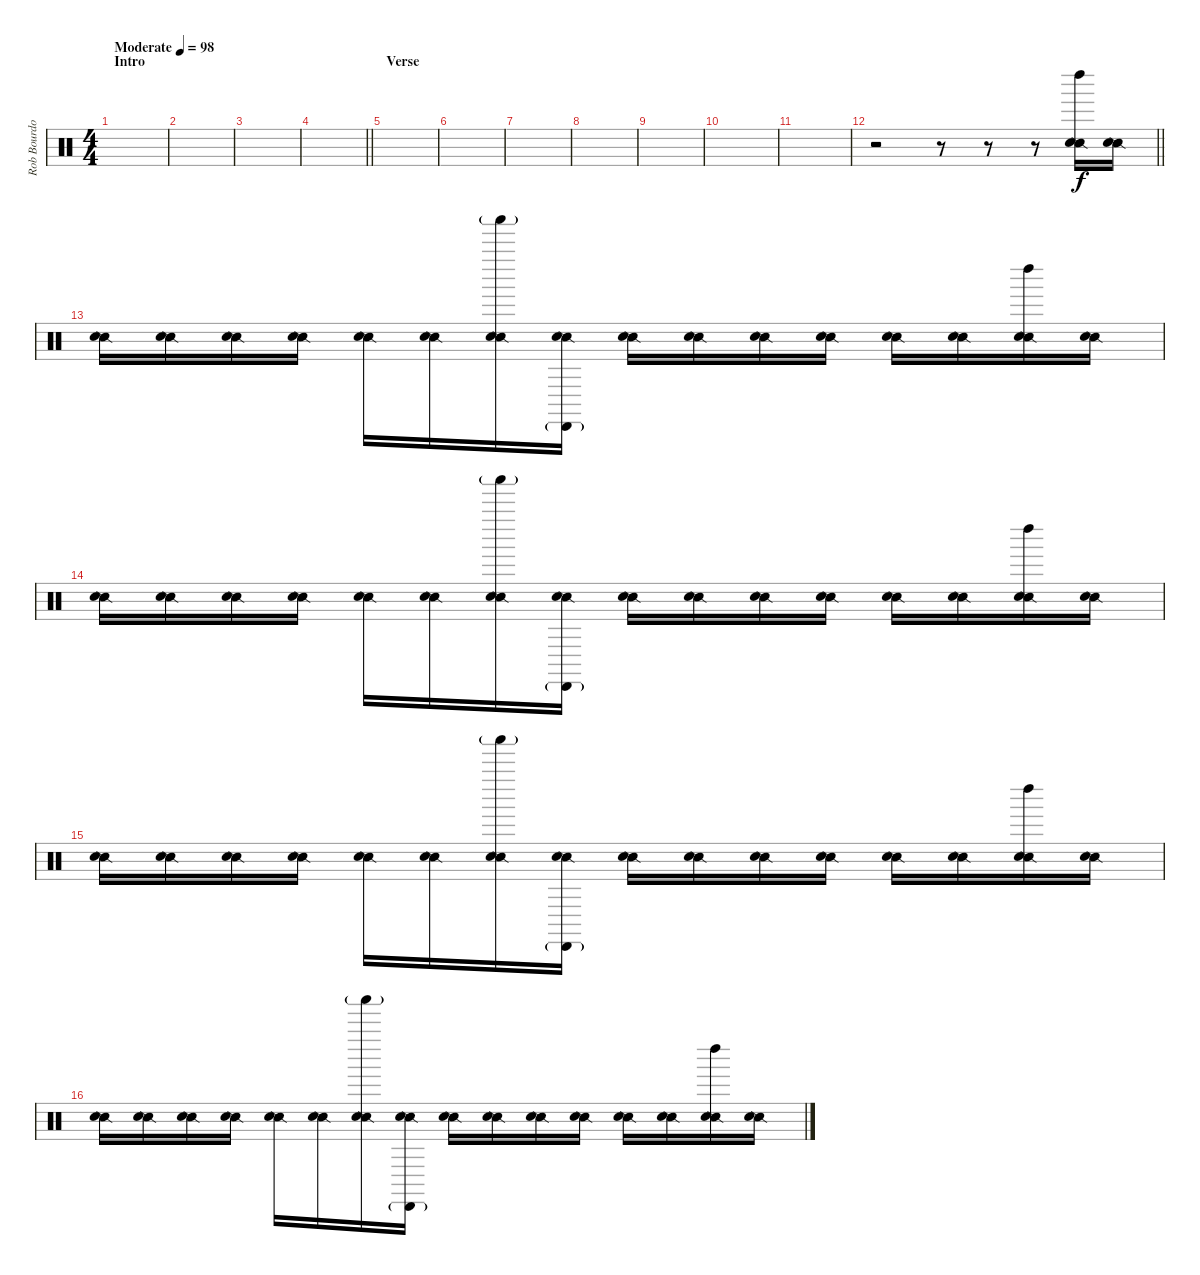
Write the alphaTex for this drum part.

\track ("Rob Bourdon (Drums)" "Rob Bourdo") {instrument percussion}
\staff {score}
\articulation defaults
\ts (4 4)
\section ("" "Intro")
\tempo (98 "Moderate")
\clef neutral
\ks c
|
|
|
\barLineRight lightlight
|
\section ("" "Verse")
|
|
|
|
|
|
|
\barLineRight lightlight
r.2{volume 8} r.8 r.8 r.8 ("Left Maraca (hit)" "Snare (side stick) 2" "Hand Clap (hit)").16 ("Snare (side stick) 2" "Hand Clap (hit)").16 |
("Snare (side stick) 2" "Hand Clap (hit)").16 ("Snare (side stick) 2" "Hand Clap (hit)").16 ("Snare (side stick) 2" "Hand Clap (hit)").16 ("Snare (side stick) 2" "Hand Clap (hit)").16 ("Snare (side stick) 2" "Hand Clap (hit)").16 ("Snare (side stick) 2" "Hand Clap (hit)").16 ("Shaker (hit)"{g} "Snare (side stick) 2" "Hand Clap (hit)").16 ("Cabasa (hit)"{g} "Snare (side stick) 2" "Hand Clap (hit)").16 ("Snare (side stick) 2" "Hand Clap (hit)").16 ("Snare (side stick) 2" "Hand Clap (hit)").16 ("Snare (side stick) 2" "Hand Clap (hit)").16 ("Snare (side stick) 2" "Hand Clap (hit)").16 ("Snare (side stick) 2" "Hand Clap (hit)").16 ("Snare (side stick) 2" "Hand Clap (hit)").16 ("Left Maraca (hit)" "Snare (side stick) 2" "Hand Clap (hit)").16 ("Snare (side stick) 2" "Hand Clap (hit)").16 |
("Snare (side stick) 2" "Hand Clap (hit)").16 ("Snare (side stick) 2" "Hand Clap (hit)").16 ("Snare (side stick) 2" "Hand Clap (hit)").16 ("Snare (side stick) 2" "Hand Clap (hit)").16 ("Snare (side stick) 2" "Hand Clap (hit)").16 ("Snare (side stick) 2" "Hand Clap (hit)").16 ("Shaker (hit)"{g} "Snare (side stick) 2" "Hand Clap (hit)").16 ("Cabasa (hit)"{g} "Snare (side stick) 2" "Hand Clap (hit)").16 ("Snare (side stick) 2" "Hand Clap (hit)").16 ("Snare (side stick) 2" "Hand Clap (hit)").16 ("Snare (side stick) 2" "Hand Clap (hit)").16 ("Snare (side stick) 2" "Hand Clap (hit)").16 ("Snare (side stick) 2" "Hand Clap (hit)").16 ("Snare (side stick) 2" "Hand Clap (hit)").16 ("Left Maraca (hit)" "Snare (side stick) 2" "Hand Clap (hit)").16 ("Snare (side stick) 2" "Hand Clap (hit)").16 |
("Snare (side stick) 2" "Hand Clap (hit)").16 ("Snare (side stick) 2" "Hand Clap (hit)").16 ("Snare (side stick) 2" "Hand Clap (hit)").16 ("Snare (side stick) 2" "Hand Clap (hit)").16 ("Snare (side stick) 2" "Hand Clap (hit)").16 ("Snare (side stick) 2" "Hand Clap (hit)").16 ("Shaker (hit)"{g} "Snare (side stick) 2" "Hand Clap (hit)").16 ("Cabasa (hit)"{g} "Snare (side stick) 2" "Hand Clap (hit)").16 ("Snare (side stick) 2" "Hand Clap (hit)").16 ("Snare (side stick) 2" "Hand Clap (hit)").16 ("Snare (side stick) 2" "Hand Clap (hit)").16 ("Snare (side stick) 2" "Hand Clap (hit)").16 ("Snare (side stick) 2" "Hand Clap (hit)").16 ("Snare (side stick) 2" "Hand Clap (hit)").16 ("Left Maraca (hit)" "Snare (side stick) 2" "Hand Clap (hit)").16 ("Snare (side stick) 2" "Hand Clap (hit)").16 |
("Snare (side stick) 2" "Hand Clap (hit)").16 ("Snare (side stick) 2" "Hand Clap (hit)").16 ("Snare (side stick) 2" "Hand Clap (hit)").16 ("Snare (side stick) 2" "Hand Clap (hit)").16 ("Snare (side stick) 2" "Hand Clap (hit)").16 ("Snare (side stick) 2" "Hand Clap (hit)").16 ("Shaker (hit)"{g} "Snare (side stick) 2" "Hand Clap (hit)").16 ("Cabasa (hit)"{g} "Snare (side stick) 2" "Hand Clap (hit)").16 ("Snare (side stick) 2" "Hand Clap (hit)").16 ("Snare (side stick) 2" "Hand Clap (hit)").16 ("Snare (side stick) 2" "Hand Clap (hit)").16 ("Snare (side stick) 2" "Hand Clap (hit)").16 ("Snare (side stick) 2" "Hand Clap (hit)").16 ("Snare (side stick) 2" "Hand Clap (hit)").16 ("Left Maraca (hit)" "Snare (side stick) 2" "Hand Clap (hit)").16 ("Snare (side stick) 2" "Hand Clap (hit)").16
